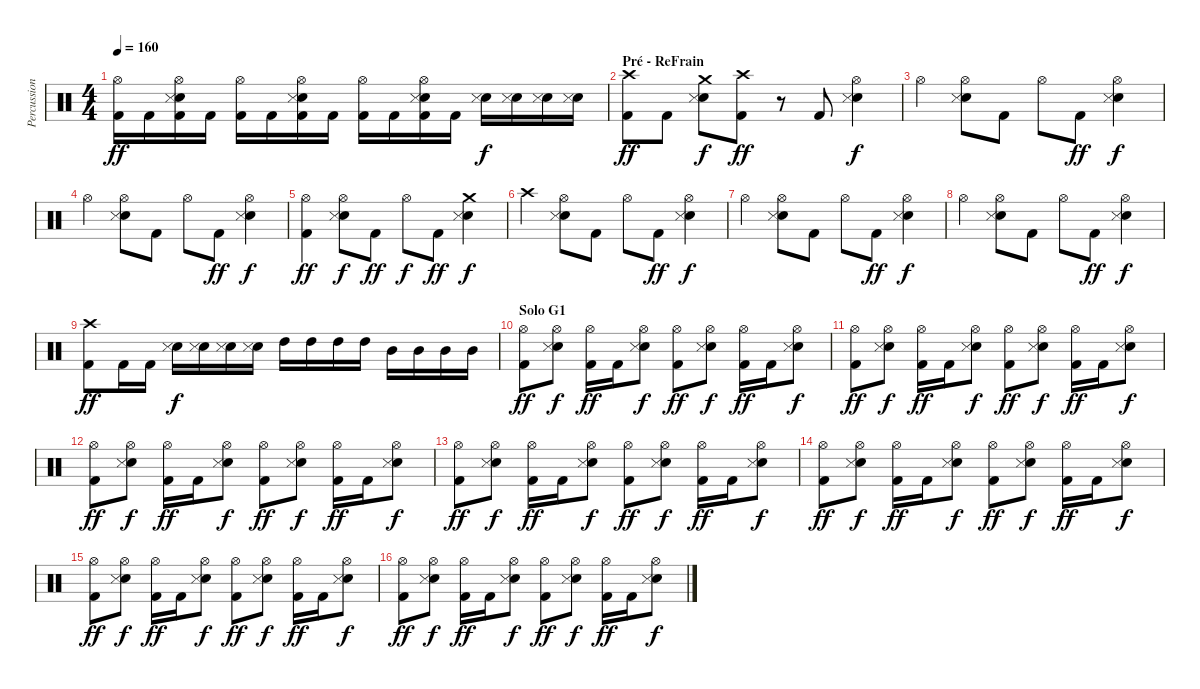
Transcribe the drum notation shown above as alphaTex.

\track ("Percussions" "Percussion") {instrument percussion}
\staff {score}
\articulation defaults
\ts (4 4)
\tempo 160
\clef neutral
\ks c
("Hi-Hat (open)" "Kick (hit) 2").16{dy ff} "Kick (hit) 2".16 ("Hi-Hat (open)" "Electric Snare (hit)" "Snare (side stick) 3" "Kick (hit) 2").16 "Kick (hit) 2".16 ("Hi-Hat (open)" "Kick (hit) 2").16 "Kick (hit) 2".16 ("Hi-Hat (open)" "Electric Snare (hit)" "Snare (side stick) 3" "Kick (hit) 2").16 "Kick (hit) 2".16 ("Hi-Hat (open)" "Kick (hit) 2").16 "Kick (hit) 2".16 ("Hi-Hat (open)" "Electric Snare (hit)" "Snare (side stick) 3" "Kick (hit) 2").16 "Kick (hit) 2".16 ("Electric Snare (hit)" "Snare (side stick) 3").16{dy f} ("Electric Snare (hit)" "Snare (side stick) 3").16 ("Electric Snare (hit)" "Snare (side stick) 3").16 ("Electric Snare (hit)" "Snare (side stick) 3").16 |
\section ("" "Pré - ReFrain  ")
("Crash high (hit)" "Kick (hit) 2").8{dy ff} "Kick (hit) 2".8 ("Crash medium (hit)" "Electric Snare (hit)" "Snare (side stick) 3").8{dy f} ("Crash high (hit)" "Kick (hit) 2").8{dy ff} r.8 "Kick (hit) 2".8 ("Hi-Hat (open)" "Electric Snare (hit)" "Snare (side stick) 3").4{dy f} |
"Hi-Hat (open)".4 ("Hi-Hat (open)" "Electric Snare (hit)" "Snare (side stick) 3").8 "Kick (hit) 2".8 "Hi-Hat (open)".8 "Kick (hit) 2".8{dy ff} ("Hi-Hat (open)" "Electric Snare (hit)" "Snare (side stick) 3").4{dy f} |
"Hi-Hat (open)".4 ("Hi-Hat (open)" "Electric Snare (hit)" "Snare (side stick) 3").8 "Kick (hit) 2".8 "Hi-Hat (open)".8 "Kick (hit) 2".8{dy ff} ("Hi-Hat (open)" "Electric Snare (hit)" "Snare (side stick) 3").4{dy f} |
("Hi-Hat (open)" "Kick (hit) 2").4{dy ff} ("Hi-Hat (open)" "Electric Snare (hit)" "Snare (side stick) 3").8{dy f} "Kick (hit) 2".8{dy ff} "Hi-Hat (open)".8{dy f} "Kick (hit) 2".8{dy ff} ("Crash medium (hit)" "Electric Snare (hit)" "Snare (side stick) 3").4{dy f} |
"Crash high (hit)".4 ("Hi-Hat (open)" "Electric Snare (hit)" "Snare (side stick) 3").8 "Kick (hit) 2".8 "Hi-Hat (open)".8 "Kick (hit) 2".8{dy ff} ("Hi-Hat (open)" "Electric Snare (hit)" "Snare (side stick) 3").4{dy f} |
"Hi-Hat (open)".4 ("Hi-Hat (open)" "Electric Snare (hit)" "Snare (side stick) 3").8 "Kick (hit) 2".8 "Hi-Hat (open)".8 "Kick (hit) 2".8{dy ff} ("Hi-Hat (open)" "Electric Snare (hit)" "Snare (side stick) 3").4{dy f} |
"Hi-Hat (open)".4 ("Hi-Hat (open)" "Electric Snare (hit)" "Snare (side stick) 3").8 "Kick (hit) 2".8 "Hi-Hat (open)".8 "Kick (hit) 2".8{dy ff} ("Hi-Hat (open)" "Electric Snare (hit)" "Snare (side stick) 3").4{dy f} |
("Crash high (hit)" "Kick (hit) 2").8{dy ff} "Kick (hit) 2".16 "Kick (hit) 2".16 ("Electric Snare (hit)" "Snare (side stick) 3").16{dy f} ("Electric Snare (hit)" "Snare (side stick) 3").16 ("Electric Snare (hit)" "Snare (side stick) 3").16 ("Electric Snare (hit)" "Snare (side stick) 3").16 "High Tom (hit)".16 "High Tom (hit)".16 "High Tom (hit)".16 "High Tom (hit)".16 "Mid Tom (hit)".16 "Mid Tom (hit)".16 "Mid Tom (hit)".16 "Mid Tom (hit)".16 |
\section ("" "Solo G1")
("Hi-Hat (open)" "Kick (hit) 2").8{dy ff} ("Hi-Hat (open)" "Electric Snare (hit)" "Snare (side stick) 3").8{dy f} ("Hi-Hat (open)" "Kick (hit) 2").16{dy ff} "Kick (hit) 2".16 ("Hi-Hat (open)" "Electric Snare (hit)" "Snare (side stick) 3").8{dy f} ("Hi-Hat (open)" "Kick (hit) 2").8{dy ff} ("Hi-Hat (open)" "Electric Snare (hit)" "Snare (side stick) 3").8{dy f} ("Hi-Hat (open)" "Kick (hit) 2").16{dy ff} "Kick (hit) 2".16 ("Hi-Hat (open)" "Electric Snare (hit)" "Snare (side stick) 3").8{dy f} |
("Hi-Hat (open)" "Kick (hit) 2").8{dy ff} ("Hi-Hat (open)" "Electric Snare (hit)" "Snare (side stick) 3").8{dy f} ("Hi-Hat (open)" "Kick (hit) 2").16{dy ff} "Kick (hit) 2".16 ("Hi-Hat (open)" "Electric Snare (hit)" "Snare (side stick) 3").8{dy f} ("Hi-Hat (open)" "Kick (hit) 2").8{dy ff} ("Hi-Hat (open)" "Electric Snare (hit)" "Snare (side stick) 3").8{dy f} ("Hi-Hat (open)" "Kick (hit) 2").16{dy ff} "Kick (hit) 2".16 ("Hi-Hat (open)" "Electric Snare (hit)" "Snare (side stick) 3").8{dy f} |
("Hi-Hat (open)" "Kick (hit) 2").8{dy ff} ("Hi-Hat (open)" "Electric Snare (hit)" "Snare (side stick) 3").8{dy f} ("Hi-Hat (open)" "Kick (hit) 2").16{dy ff} "Kick (hit) 2".16 ("Hi-Hat (open)" "Electric Snare (hit)" "Snare (side stick) 3").8{dy f} ("Hi-Hat (open)" "Kick (hit) 2").8{dy ff} ("Hi-Hat (open)" "Electric Snare (hit)" "Snare (side stick) 3").8{dy f} ("Hi-Hat (open)" "Kick (hit) 2").16{dy ff} "Kick (hit) 2".16 ("Hi-Hat (open)" "Electric Snare (hit)" "Snare (side stick) 3").8{dy f} |
("Hi-Hat (open)" "Kick (hit) 2").8{dy ff} ("Hi-Hat (open)" "Electric Snare (hit)" "Snare (side stick) 3").8{dy f} ("Hi-Hat (open)" "Kick (hit) 2").16{dy ff} "Kick (hit) 2".16 ("Hi-Hat (open)" "Electric Snare (hit)" "Snare (side stick) 3").8{dy f} ("Hi-Hat (open)" "Kick (hit) 2").8{dy ff} ("Hi-Hat (open)" "Electric Snare (hit)" "Snare (side stick) 3").8{dy f} ("Hi-Hat (open)" "Kick (hit) 2").16{dy ff} "Kick (hit) 2".16 ("Hi-Hat (open)" "Electric Snare (hit)" "Snare (side stick) 3").8{dy f} |
("Hi-Hat (open)" "Kick (hit) 2").8{dy ff} ("Hi-Hat (open)" "Electric Snare (hit)" "Snare (side stick) 3").8{dy f} ("Hi-Hat (open)" "Kick (hit) 2").16{dy ff} "Kick (hit) 2".16 ("Hi-Hat (open)" "Electric Snare (hit)" "Snare (side stick) 3").8{dy f} ("Hi-Hat (open)" "Kick (hit) 2").8{dy ff} ("Hi-Hat (open)" "Electric Snare (hit)" "Snare (side stick) 3").8{dy f} ("Hi-Hat (open)" "Kick (hit) 2").16{dy ff} "Kick (hit) 2".16 ("Hi-Hat (open)" "Electric Snare (hit)" "Snare (side stick) 3").8{dy f} |
("Hi-Hat (open)" "Kick (hit) 2").8{dy ff} ("Hi-Hat (open)" "Electric Snare (hit)" "Snare (side stick) 3").8{dy f} ("Hi-Hat (open)" "Kick (hit) 2").16{dy ff} "Kick (hit) 2".16 ("Hi-Hat (open)" "Electric Snare (hit)" "Snare (side stick) 3").8{dy f} ("Hi-Hat (open)" "Kick (hit) 2").8{dy ff} ("Hi-Hat (open)" "Electric Snare (hit)" "Snare (side stick) 3").8{dy f} ("Hi-Hat (open)" "Kick (hit) 2").16{dy ff} "Kick (hit) 2".16 ("Hi-Hat (open)" "Electric Snare (hit)" "Snare (side stick) 3").8{dy f} |
("Hi-Hat (open)" "Kick (hit) 2").8{dy ff} ("Hi-Hat (open)" "Electric Snare (hit)" "Snare (side stick) 3").8{dy f} ("Hi-Hat (open)" "Kick (hit) 2").16{dy ff} "Kick (hit) 2".16 ("Hi-Hat (open)" "Electric Snare (hit)" "Snare (side stick) 3").8{dy f} ("Hi-Hat (open)" "Kick (hit) 2").8{dy ff} ("Hi-Hat (open)" "Electric Snare (hit)" "Snare (side stick) 3").8{dy f} ("Hi-Hat (open)" "Kick (hit) 2").16{dy ff} "Kick (hit) 2".16 ("Hi-Hat (open)" "Electric Snare (hit)" "Snare (side stick) 3").8{dy f}
